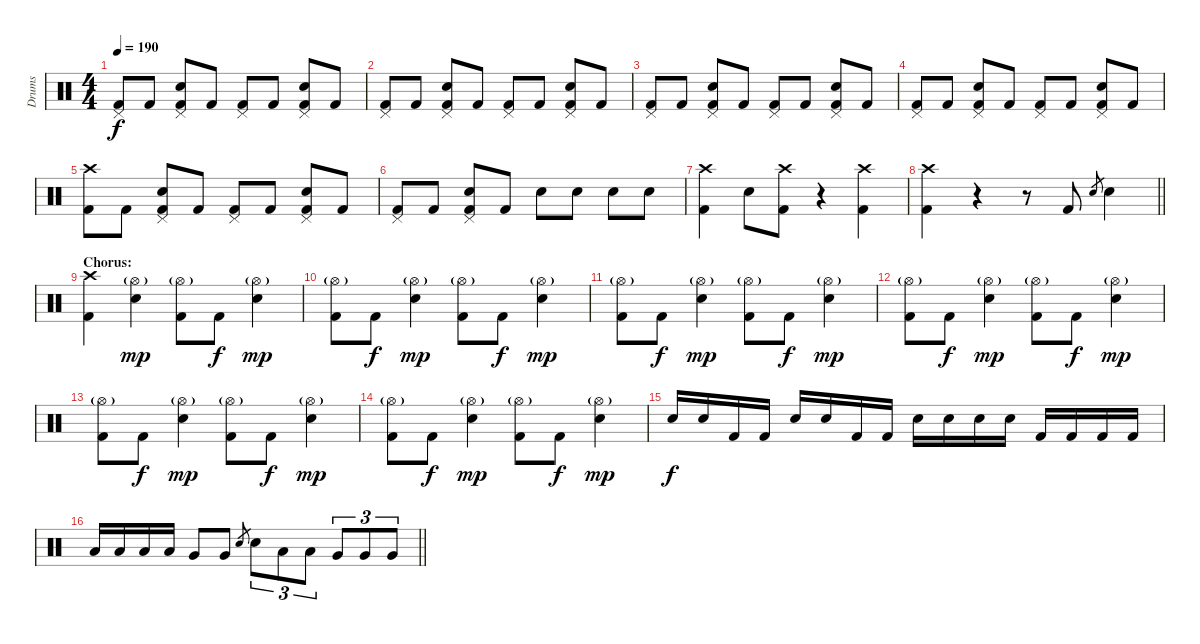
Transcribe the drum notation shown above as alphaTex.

\track ("Drums" "Drums") {instrument percussion}
\staff {score}
\articulation defaults
\ts (4 4)
\tempo 190
\clef neutral
\ks c
("Pedal Hi-Hat (hit)" "Kick (hit) 2").8{dy f} "Kick (hit) 2".8 ("Pedal Hi-Hat (hit)" "Electric Snare (hit)" "Kick (hit) 2").8 "Kick (hit) 2".8 ("Pedal Hi-Hat (hit)" "Kick (hit) 2").8 "Kick (hit) 2".8 ("Pedal Hi-Hat (hit)" "Electric Snare (hit)" "Kick (hit) 2").8 "Kick (hit) 2".8 |
("Pedal Hi-Hat (hit)" "Kick (hit) 2").8 "Kick (hit) 2".8 ("Pedal Hi-Hat (hit)" "Electric Snare (hit)" "Kick (hit) 2").8 "Kick (hit) 2".8 ("Pedal Hi-Hat (hit)" "Kick (hit) 2").8 "Kick (hit) 2".8 ("Pedal Hi-Hat (hit)" "Electric Snare (hit)" "Kick (hit) 2").8 "Kick (hit) 2".8 |
("Pedal Hi-Hat (hit)" "Kick (hit) 2").8 "Kick (hit) 2".8 ("Pedal Hi-Hat (hit)" "Electric Snare (hit)" "Kick (hit) 2").8 "Kick (hit) 2".8 ("Pedal Hi-Hat (hit)" "Kick (hit) 2").8 "Kick (hit) 2".8 ("Pedal Hi-Hat (hit)" "Electric Snare (hit)" "Kick (hit) 2").8 "Kick (hit) 2".8 |
("Pedal Hi-Hat (hit)" "Kick (hit) 2").8 "Kick (hit) 2".8 ("Pedal Hi-Hat (hit)" "Electric Snare (hit)" "Kick (hit) 2").8 "Kick (hit) 2".8 ("Pedal Hi-Hat (hit)" "Kick (hit) 2").8 "Kick (hit) 2".8 ("Pedal Hi-Hat (hit)" "Electric Snare (hit)" "Kick (hit) 2").8 "Kick (hit) 2".8 |
("Crash high (hit)" "Kick (hit) 2").8 "Kick (hit) 2".8 ("Pedal Hi-Hat (hit)" "Electric Snare (hit)" "Kick (hit) 2").8 "Kick (hit) 2".8 ("Pedal Hi-Hat (hit)" "Kick (hit) 2").8 "Kick (hit) 2".8 ("Pedal Hi-Hat (hit)" "Electric Snare (hit)" "Kick (hit) 2").8 "Kick (hit) 2".8 |
("Pedal Hi-Hat (hit)" "Kick (hit) 2").8 "Kick (hit) 2".8 ("Pedal Hi-Hat (hit)" "Electric Snare (hit)" "Kick (hit) 2").8 "Kick (hit) 2".8 "Electric Snare (hit)".8 "Electric Snare (hit)".8 "Electric Snare (hit)".8 "Electric Snare (hit)".8 |
("Crash high (hit)" "Kick (hit) 2").4 "Electric Snare (hit)".8 ("Crash high (hit)" "Kick (hit) 2").8 r.4 ("Crash high (hit)" "Kick (hit) 2").4 |
\barLineRight lightlight
("Crash high (hit)" "Kick (hit) 2").4 r.4 r.8 "Kick (hit) 2".8 "Electric Snare (hit)".8{gr} "Electric Snare (hit)".4 |
\section ("" "Chorus:")
("Crash high (hit)" "Kick (hit) 2").4 ("Hi-Hat (open)"{g} "Electric Snare (hit)").4{dy mp} ("Hi-Hat (open)"{g} "Kick (hit) 2").8 "Kick (hit) 2".8{dy f} ("Hi-Hat (open)"{g} "Electric Snare (hit)").4{dy mp} |
("Hi-Hat (open)"{g} "Kick (hit) 2").8 "Kick (hit) 2".8{dy f} ("Hi-Hat (open)"{g} "Electric Snare (hit)").4{dy mp} ("Hi-Hat (open)"{g} "Kick (hit) 2").8 "Kick (hit) 2".8{dy f} ("Hi-Hat (open)"{g} "Electric Snare (hit)").4{dy mp} |
("Hi-Hat (open)"{g} "Kick (hit) 2").8 "Kick (hit) 2".8{dy f} ("Hi-Hat (open)"{g} "Electric Snare (hit)").4{dy mp} ("Hi-Hat (open)"{g} "Kick (hit) 2").8 "Kick (hit) 2".8{dy f} ("Hi-Hat (open)"{g} "Electric Snare (hit)").4{dy mp} |
("Hi-Hat (open)"{g} "Kick (hit) 2").8 "Kick (hit) 2".8{dy f} ("Hi-Hat (open)"{g} "Electric Snare (hit)").4{dy mp} ("Hi-Hat (open)"{g} "Kick (hit) 2").8 "Kick (hit) 2".8{dy f} ("Hi-Hat (open)"{g} "Electric Snare (hit)").4{dy mp} |
("Hi-Hat (open)"{g} "Kick (hit) 2").8 "Kick (hit) 2".8{dy f} ("Hi-Hat (open)"{g} "Electric Snare (hit)").4{dy mp} ("Hi-Hat (open)"{g} "Kick (hit) 2").8 "Kick (hit) 2".8{dy f} ("Hi-Hat (open)"{g} "Electric Snare (hit)").4{dy mp} |
("Hi-Hat (open)"{g} "Kick (hit) 2").8 "Kick (hit) 2".8{dy f} ("Hi-Hat (open)"{g} "Electric Snare (hit)").4{dy mp} ("Hi-Hat (open)"{g} "Kick (hit) 2").8 "Kick (hit) 2".8{dy f} ("Hi-Hat (open)"{g} "Electric Snare (hit)").4{dy mp} |
"Electric Snare (hit)".16{dy f} "Electric Snare (hit)".16 "Kick (hit) 2".16 "Kick (hit) 2".16 "Electric Snare (hit)".16 "Electric Snare (hit)".16 "Kick (hit) 2".16 "Kick (hit) 2".16 "Electric Snare (hit)".16 "Electric Snare (hit)".16 "Electric Snare (hit)".16 "Electric Snare (hit)".16 "Kick (hit) 2".16 "Kick (hit) 2".16 "Kick (hit) 2".16 "Kick (hit) 2".16 |
\barLineRight lightlight "Low Tom (hit)".16 "Low Tom (hit)".16 "Low Tom (hit)".16 "Low Tom (hit)".16 "Very Low Tom (hit)".8 "Very Low Tom (hit)".8 "Electric Snare (hit)".8{gr} "Electric Snare (hit)".8{tu (3 2)} "Low Tom (hit)".8{tu (3 2)} "Low Tom (hit)".8{tu (3 2)} "Very Low Tom (hit)".8{tu (3 2)} "Very Low Tom (hit)".8{tu (3 2)} "Very Low Tom (hit)".8{tu (3 2)}
